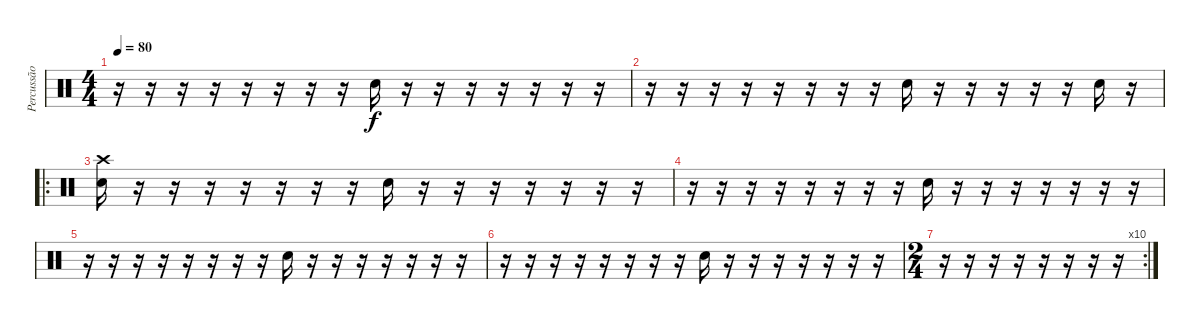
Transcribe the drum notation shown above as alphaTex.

\track ("Percussão" "Percussão") {instrument percussion}
\staff {score}
\articulation defaults
\ts (4 4)
\tempo 80
\clef neutral
\ks c
r.16{dy f} r.16 r.16 r.16 r.16 r.16 r.16 r.16 "Electric Snare (hit)".16 r.16 r.16 r.16 r.16 r.16 r.16 r.16 |
r.16 r.16 r.16 r.16 r.16 r.16 r.16 r.16 "Electric Snare (hit)".16 r.16 r.16 r.16 r.16 r.16 "Electric Snare (hit)".16 r.16 |
\ro
("Crash high (hit)" "Electric Snare (hit)").16 r.16 r.16 r.16 r.16 r.16 r.16 r.16 "Electric Snare (hit)".16 r.16 r.16 r.16 r.16 r.16 r.16 r.16 |
r.16 r.16 r.16 r.16 r.16 r.16 r.16 r.16 "Electric Snare (hit)".16 r.16 r.16 r.16 r.16 r.16 r.16 r.16 |
r.16 r.16 r.16 r.16 r.16 r.16 r.16 r.16 "Electric Snare (hit)".16 r.16 r.16 r.16 r.16 r.16 r.16 r.16 |
r.16 r.16 r.16 r.16 r.16 r.16 r.16 r.16 "Electric Snare (hit)".16 r.16 r.16 r.16 r.16 r.16 r.16 r.16 |
\rc 10
\ts (2 4)
r.16 r.16 r.16 r.16 r.16 r.16 r.16 r.16
